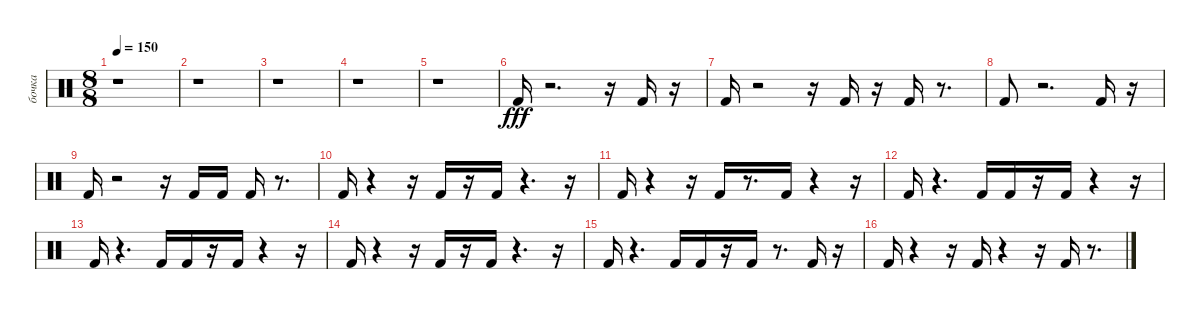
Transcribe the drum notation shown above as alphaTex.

\track ("бочка" "бочка") {instrument percussion}
\staff {score}
\articulation defaults
\ts (8 8)
\tempo 150
\clef neutral
\ks c
r.1{dy fff} |
r.1 |
r.1 |
r.1 |
r.1 |
"Kick (hit) 2".16 r.2{d} r.16 "Kick (hit) 2".16 r.16 |
"Kick (hit) 2".16 r.2 r.16 "Kick (hit) 2".16 r.16 "Kick (hit) 2".16 r.8{d} |
"Kick (hit) 2".8 r.2{d} "Kick (hit) 2".16 r.16 |
"Kick (hit) 2".16 r.2 r.16 "Kick (hit) 2".16 "Kick (hit) 2".16 "Kick (hit) 2".16 r.8{d} |
"Kick (hit) 2".16 r.4 r.16 "Kick (hit) 2".16 r.16 "Kick (hit) 2".16 r.4{d} r.16 |
"Kick (hit) 2".16 r.4 r.16 "Kick (hit) 2".16 r.8{d} "Kick (hit) 2".16 r.4 r.16 |
"Kick (hit) 2".16 r.4{d} "Kick (hit) 2".16 "Kick (hit) 2".16 r.16 "Kick (hit) 2".16 r.4 r.16 |
"Kick (hit) 2".16 r.4{d} "Kick (hit) 2".16 "Kick (hit) 2".16 r.16 "Kick (hit) 2".16 r.4 r.16 |
"Kick (hit) 2".16 r.4 r.16 "Kick (hit) 2".16 r.16 "Kick (hit) 2".16 r.4{d} r.16 |
"Kick (hit) 2".16 r.4{d} "Kick (hit) 2".16 "Kick (hit) 2".16 r.16 "Kick (hit) 2".16 r.8{d} "Kick (hit) 2".16 r.16 |
"Kick (hit) 2".16 r.4 r.16 "Kick (hit) 2".16 r.4 r.16 "Kick (hit) 2".16 r.8{d}
